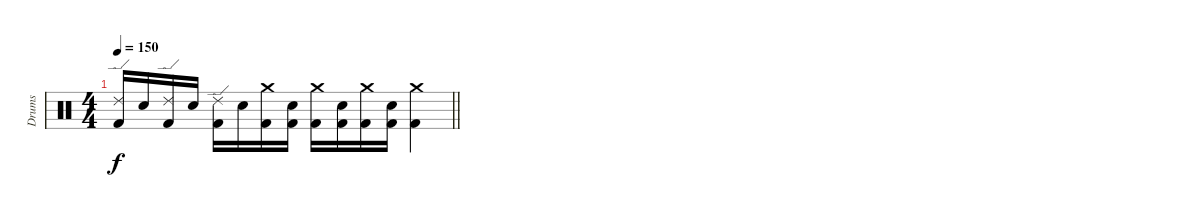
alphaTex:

\track ("Drums" "Drums") {instrument percussion}
\staff {score}
\articulation defaults
\ts (4 4)
\tempo 150
\clef neutral
\barLineRight lightlight
\ks c
("Ride (edge) 2" "Kick (hit) 2").16{dy f} "Electric Snare (hit)".16 ("Ride (edge) 2" "Kick (hit) 2").16 "Electric Snare (hit)".16 ("Ride (edge) 2" "Kick (hit) 2").16 "Electric Snare (hit)".16 ("Crash medium (hit)" "Kick (hit) 2").16 ("Electric Snare (hit)" "Kick (hit) 2").16 ("Crash medium (hit)" "Kick (hit) 2").16 ("Electric Snare (hit)" "Kick (hit) 2").16 ("Crash medium (hit)" "Kick (hit) 2").16 ("Electric Snare (hit)" "Kick (hit) 2").16 ("Crash medium (hit)" "Kick (hit) 2").4
